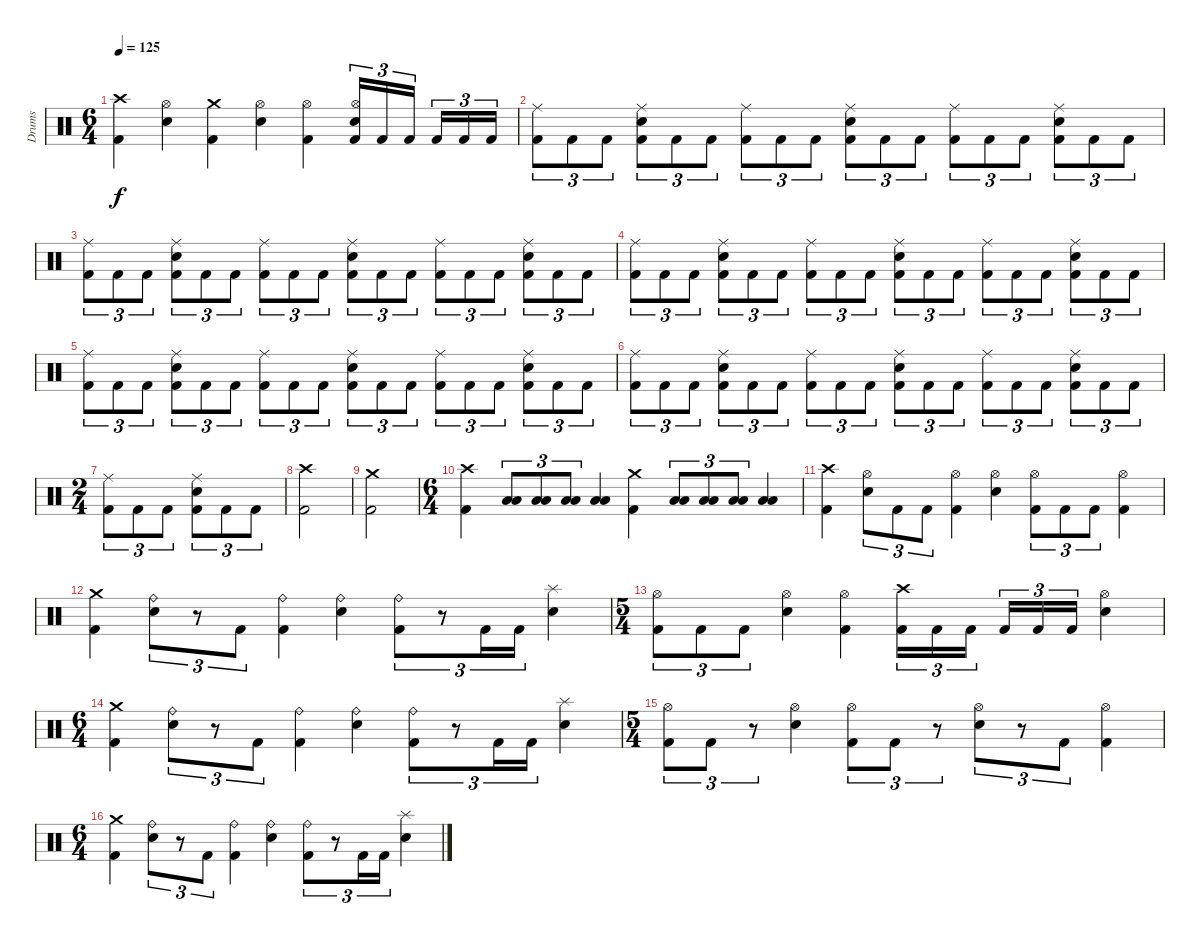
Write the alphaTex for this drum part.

\track ("Drums" "Drums") {instrument percussion}
\staff {score}
\articulation defaults
\ts (6 4)
\tempo 125
\clef neutral
\ks c
("Crash high (hit)" "Kick (hit) 2").4{dy f} ("Hi-Hat (open)" "Electric Snare (hit)").4 ("Crash medium (hit)" "Kick (hit) 2").4 ("Hi-Hat (open)" "Electric Snare (hit)").4 ("Hi-Hat (open)" "Kick (hit) 2").4 ("Hi-Hat (open)" "Electric Snare (hit)" "Kick (hit) 2").16{tu (3 2)} "Kick (hit) 2".16{tu (3 2)} "Kick (hit) 2".16{tu (3 2)} "Kick (hit) 2".16{tu (3 2)} "Kick (hit) 2".16{tu (3 2)} "Kick (hit) 2".16{tu (3 2)} |
("Ride (middle)" "Kick (hit) 2").8{tu (3 2)} "Kick (hit) 2".8{tu (3 2)} "Kick (hit) 2".8{tu (3 2)} ("Ride (middle)" "Electric Snare (hit)" "Kick (hit) 2").8{tu (3 2)} "Kick (hit) 2".8{tu (3 2)} "Kick (hit) 2".8{tu (3 2)} ("Ride (middle)" "Kick (hit) 2").8{tu (3 2)} "Kick (hit) 2".8{tu (3 2)} "Kick (hit) 2".8{tu (3 2)} ("Ride (middle)" "Electric Snare (hit)" "Kick (hit) 2").8{tu (3 2)} "Kick (hit) 2".8{tu (3 2)} "Kick (hit) 2".8{tu (3 2)} ("Ride (middle)" "Kick (hit) 2").8{tu (3 2)} "Kick (hit) 2".8{tu (3 2)} "Kick (hit) 2".8{tu (3 2)} ("Ride (middle)" "Electric Snare (hit)" "Kick (hit) 2").8{tu (3 2)} "Kick (hit) 2".8{tu (3 2)} "Kick (hit) 2".8{tu (3 2)} |
("Ride (middle)" "Kick (hit) 2").8{tu (3 2)} "Kick (hit) 2".8{tu (3 2)} "Kick (hit) 2".8{tu (3 2)} ("Ride (middle)" "Electric Snare (hit)" "Kick (hit) 2").8{tu (3 2)} "Kick (hit) 2".8{tu (3 2)} "Kick (hit) 2".8{tu (3 2)} ("Ride (middle)" "Kick (hit) 2").8{tu (3 2)} "Kick (hit) 2".8{tu (3 2)} "Kick (hit) 2".8{tu (3 2)} ("Ride (middle)" "Electric Snare (hit)" "Kick (hit) 2").8{tu (3 2)} "Kick (hit) 2".8{tu (3 2)} "Kick (hit) 2".8{tu (3 2)} ("Ride (middle)" "Kick (hit) 2").8{tu (3 2)} "Kick (hit) 2".8{tu (3 2)} "Kick (hit) 2".8{tu (3 2)} ("Ride (middle)" "Electric Snare (hit)" "Kick (hit) 2").8{tu (3 2)} "Kick (hit) 2".8{tu (3 2)} "Kick (hit) 2".8{tu (3 2)} |
("Ride (middle)" "Kick (hit) 2").8{tu (3 2)} "Kick (hit) 2".8{tu (3 2)} "Kick (hit) 2".8{tu (3 2)} ("Ride (middle)" "Electric Snare (hit)" "Kick (hit) 2").8{tu (3 2)} "Kick (hit) 2".8{tu (3 2)} "Kick (hit) 2".8{tu (3 2)} ("Ride (middle)" "Kick (hit) 2").8{tu (3 2)} "Kick (hit) 2".8{tu (3 2)} "Kick (hit) 2".8{tu (3 2)} ("Ride (middle)" "Electric Snare (hit)" "Kick (hit) 2").8{tu (3 2)} "Kick (hit) 2".8{tu (3 2)} "Kick (hit) 2".8{tu (3 2)} ("Ride (middle)" "Kick (hit) 2").8{tu (3 2)} "Kick (hit) 2".8{tu (3 2)} "Kick (hit) 2".8{tu (3 2)} ("Ride (middle)" "Electric Snare (hit)" "Kick (hit) 2").8{tu (3 2)} "Kick (hit) 2".8{tu (3 2)} "Kick (hit) 2".8{tu (3 2)} |
("Ride (middle)" "Kick (hit) 2").8{tu (3 2)} "Kick (hit) 2".8{tu (3 2)} "Kick (hit) 2".8{tu (3 2)} ("Ride (middle)" "Electric Snare (hit)" "Kick (hit) 2").8{tu (3 2)} "Kick (hit) 2".8{tu (3 2)} "Kick (hit) 2".8{tu (3 2)} ("Ride (middle)" "Kick (hit) 2").8{tu (3 2)} "Kick (hit) 2".8{tu (3 2)} "Kick (hit) 2".8{tu (3 2)} ("Ride (middle)" "Electric Snare (hit)" "Kick (hit) 2").8{tu (3 2)} "Kick (hit) 2".8{tu (3 2)} "Kick (hit) 2".8{tu (3 2)} ("Ride (middle)" "Kick (hit) 2").8{tu (3 2)} "Kick (hit) 2".8{tu (3 2)} "Kick (hit) 2".8{tu (3 2)} ("Ride (middle)" "Electric Snare (hit)" "Kick (hit) 2").8{tu (3 2)} "Kick (hit) 2".8{tu (3 2)} "Kick (hit) 2".8{tu (3 2)} |
("Ride (middle)" "Kick (hit) 2").8{tu (3 2)} "Kick (hit) 2".8{tu (3 2)} "Kick (hit) 2".8{tu (3 2)} ("Ride (middle)" "Electric Snare (hit)" "Kick (hit) 2").8{tu (3 2)} "Kick (hit) 2".8{tu (3 2)} "Kick (hit) 2".8{tu (3 2)} ("Ride (middle)" "Kick (hit) 2").8{tu (3 2)} "Kick (hit) 2".8{tu (3 2)} "Kick (hit) 2".8{tu (3 2)} ("Ride (middle)" "Electric Snare (hit)" "Kick (hit) 2").8{tu (3 2)} "Kick (hit) 2".8{tu (3 2)} "Kick (hit) 2".8{tu (3 2)} ("Ride (middle)" "Kick (hit) 2").8{tu (3 2)} "Kick (hit) 2".8{tu (3 2)} "Kick (hit) 2".8{tu (3 2)} ("Ride (middle)" "Electric Snare (hit)" "Kick (hit) 2").8{tu (3 2)} "Kick (hit) 2".8{tu (3 2)} "Kick (hit) 2".8{tu (3 2)} |
\ts (2 4)
("Ride (middle)" "Kick (hit) 2").8{tu (3 2)} "Kick (hit) 2".8{tu (3 2)} "Kick (hit) 2".8{tu (3 2)} ("Ride (middle)" "Electric Snare (hit)" "Kick (hit) 2").8{tu (3 2)} "Kick (hit) 2".8{tu (3 2)} "Kick (hit) 2".8{tu (3 2)} |
("Crash high (hit)" "Kick (hit) 2").2 |
("Crash medium (hit)" "Kick (hit) 2").2 |
\ts (6 4)
("Crash high (hit)" "Kick (hit) 2").4 ("Low Tom (hit)" "Low Floor Tom (hit)").8{tu (3 2)} ("Low Tom (hit)" "Low Floor Tom (hit)").8{tu (3 2)} ("Low Tom (hit)" "Low Floor Tom (hit)").8{tu (3 2)} ("Low Tom (hit)" "Low Floor Tom (hit)").4 ("Crash medium (hit)" "Kick (hit) 2").4 ("Low Tom (hit)" "Low Floor Tom (hit)").8{tu (3 2)} ("Low Tom (hit)" "Low Floor Tom (hit)").8{tu (3 2)} ("Low Tom (hit)" "Low Floor Tom (hit)").8{tu (3 2)} ("Low Tom (hit)" "Low Floor Tom (hit)").4 |
("Crash high (hit)" "Kick (hit) 2").4 ("Hi-Hat (open)" "Electric Snare (hit)").8{tu (3 2)} "Kick (hit) 2".8{tu (3 2)} "Kick (hit) 2".8{tu (3 2)} ("Hi-Hat (open)" "Kick (hit) 2").4 ("Hi-Hat (open)" "Electric Snare (hit)").4 ("Hi-Hat (open)" "Kick (hit) 2").8{tu (3 2)} "Kick (hit) 2".8{tu (3 2)} "Kick (hit) 2".8{tu (3 2)} ("Hi-Hat (open)" "Kick (hit) 2").4 |
("Crash medium (hit)" "Kick (hit) 2").4 ("Ride (bell)" "Electric Snare (hit)").8{tu (3 2)} r.8{tu (3 2)} "Kick (hit) 2".8{tu (3 2)} ("Ride (bell)" "Kick (hit) 2").4 ("Ride (bell)" "Electric Snare (hit)").4 ("Ride (bell)" "Kick (hit) 2").8{tu (3 2)} r.8{tu (3 2)} "Kick (hit) 2".16{tu (3 2)} "Kick (hit) 2".16{tu (3 2)} ("Splash (hit)" "Electric Snare (hit)").4 |
\ts (5 4)
("Hi-Hat (open)" "Kick (hit) 2").8{tu (3 2)} "Kick (hit) 2".8{tu (3 2)} "Kick (hit) 2".8{tu (3 2)} ("Hi-Hat (open)" "Electric Snare (hit)").4 ("Hi-Hat (open)" "Kick (hit) 2").4 ("Crash high (hit)" "Kick (hit) 2").16{tu (3 2)} "Kick (hit) 2".16{tu (3 2)} "Kick (hit) 2".16{tu (3 2)} "Kick (hit) 2".16{tu (3 2)} "Kick (hit) 2".16{tu (3 2)} "Kick (hit) 2".16{tu (3 2)} ("Hi-Hat (open)" "Electric Snare (hit)").4 |
\ts (6 4)
("Crash medium (hit)" "Kick (hit) 2").4 ("Ride (bell)" "Electric Snare (hit)").8{tu (3 2)} r.8{tu (3 2)} "Kick (hit) 2".8{tu (3 2)} ("Ride (bell)" "Kick (hit) 2").4 ("Ride (bell)" "Electric Snare (hit)").4 ("Ride (bell)" "Kick (hit) 2").8{tu (3 2)} r.8{tu (3 2)} "Kick (hit) 2".16{tu (3 2)} "Kick (hit) 2".16{tu (3 2)} ("Splash (hit)" "Electric Snare (hit)").4 |
\ts (5 4)
("Hi-Hat (open)" "Kick (hit) 2").8{tu (3 2)} "Kick (hit) 2".8{tu (3 2)} r.8{tu (3 2)} ("Hi-Hat (open)" "Electric Snare (hit)").4 ("Hi-Hat (open)" "Kick (hit) 2").8{tu (3 2)} "Kick (hit) 2".8{tu (3 2)} r.8{tu (3 2)} ("Hi-Hat (open)" "Electric Snare (hit)").8{tu (3 2)} r.8{tu (3 2)} "Kick (hit) 2".8{tu (3 2)} ("Hi-Hat (open)" "Kick (hit) 2").4 |
\ts (6 4)
("Crash medium (hit)" "Kick (hit) 2").4 ("Ride (bell)" "Electric Snare (hit)").8{tu (3 2)} r.8{tu (3 2)} "Kick (hit) 2".8{tu (3 2)} ("Ride (bell)" "Kick (hit) 2").4 ("Ride (bell)" "Electric Snare (hit)").4 ("Ride (bell)" "Kick (hit) 2").8{tu (3 2)} r.8{tu (3 2)} "Kick (hit) 2".16{tu (3 2)} "Kick (hit) 2".16{tu (3 2)} ("Splash (hit)" "Electric Snare (hit)").4
